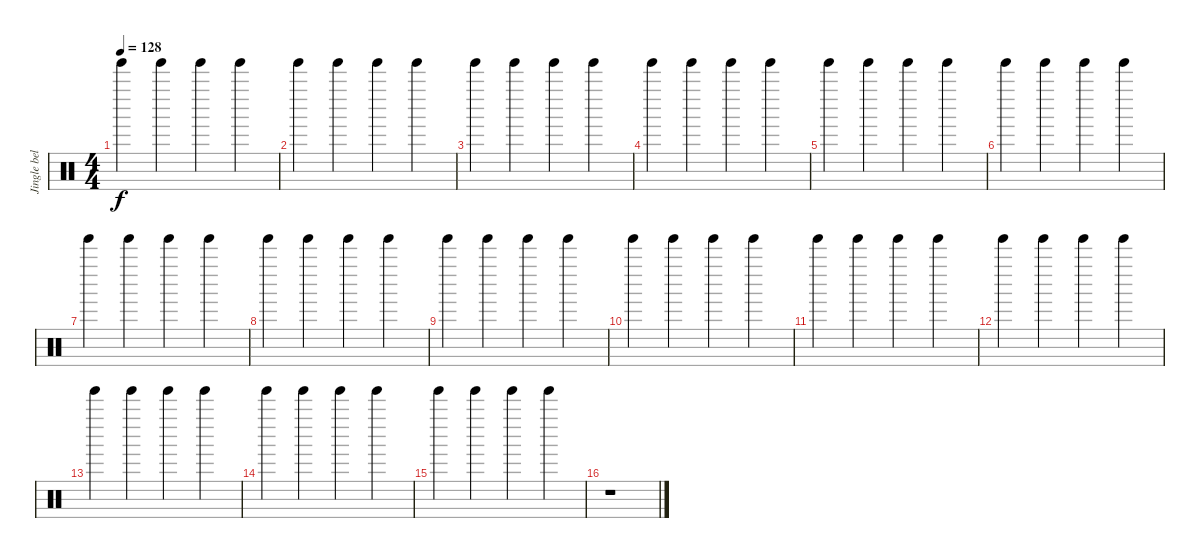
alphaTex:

\track ("Jingle bell" "Jingle bel") {instrument percussion}
\staff {score}
\articulation defaults
\ts (4 4)
\tempo 128
\clef neutral
\ks c "Tinkle Bell (hit)".4{dy f} "Tinkle Bell (hit)".4 "Tinkle Bell (hit)".4 "Tinkle Bell (hit)".4
|
"Tinkle Bell (hit)".4 "Tinkle Bell (hit)".4 "Tinkle Bell (hit)".4 "Tinkle Bell (hit)".4 |
"Tinkle Bell (hit)".4 "Tinkle Bell (hit)".4 "Tinkle Bell (hit)".4 "Tinkle Bell (hit)".4 |
"Tinkle Bell (hit)".4 "Tinkle Bell (hit)".4 "Tinkle Bell (hit)".4 "Tinkle Bell (hit)".4 |
"Tinkle Bell (hit)".4 "Tinkle Bell (hit)".4 "Tinkle Bell (hit)".4 "Tinkle Bell (hit)".4 |
"Tinkle Bell (hit)".4 "Tinkle Bell (hit)".4 "Tinkle Bell (hit)".4 "Tinkle Bell (hit)".4 |
"Tinkle Bell (hit)".4 "Tinkle Bell (hit)".4 "Tinkle Bell (hit)".4 "Tinkle Bell (hit)".4 |
"Tinkle Bell (hit)".4 "Tinkle Bell (hit)".4 "Tinkle Bell (hit)".4 "Tinkle Bell (hit)".4 |
"Tinkle Bell (hit)".4 "Tinkle Bell (hit)".4 "Tinkle Bell (hit)".4 "Tinkle Bell (hit)".4 |
"Tinkle Bell (hit)".4 "Tinkle Bell (hit)".4 "Tinkle Bell (hit)".4 "Tinkle Bell (hit)".4 |
"Tinkle Bell (hit)".4 "Tinkle Bell (hit)".4 "Tinkle Bell (hit)".4 "Tinkle Bell (hit)".4 |
"Tinkle Bell (hit)".4 "Tinkle Bell (hit)".4 "Tinkle Bell (hit)".4 "Tinkle Bell (hit)".4 |
"Tinkle Bell (hit)".4 "Tinkle Bell (hit)".4 "Tinkle Bell (hit)".4 "Tinkle Bell (hit)".4 |
"Tinkle Bell (hit)".4 "Tinkle Bell (hit)".4 "Tinkle Bell (hit)".4 "Tinkle Bell (hit)".4 |
"Tinkle Bell (hit)".4 "Tinkle Bell (hit)".4 "Tinkle Bell (hit)".4 "Tinkle Bell (hit)".4 |
r.1
